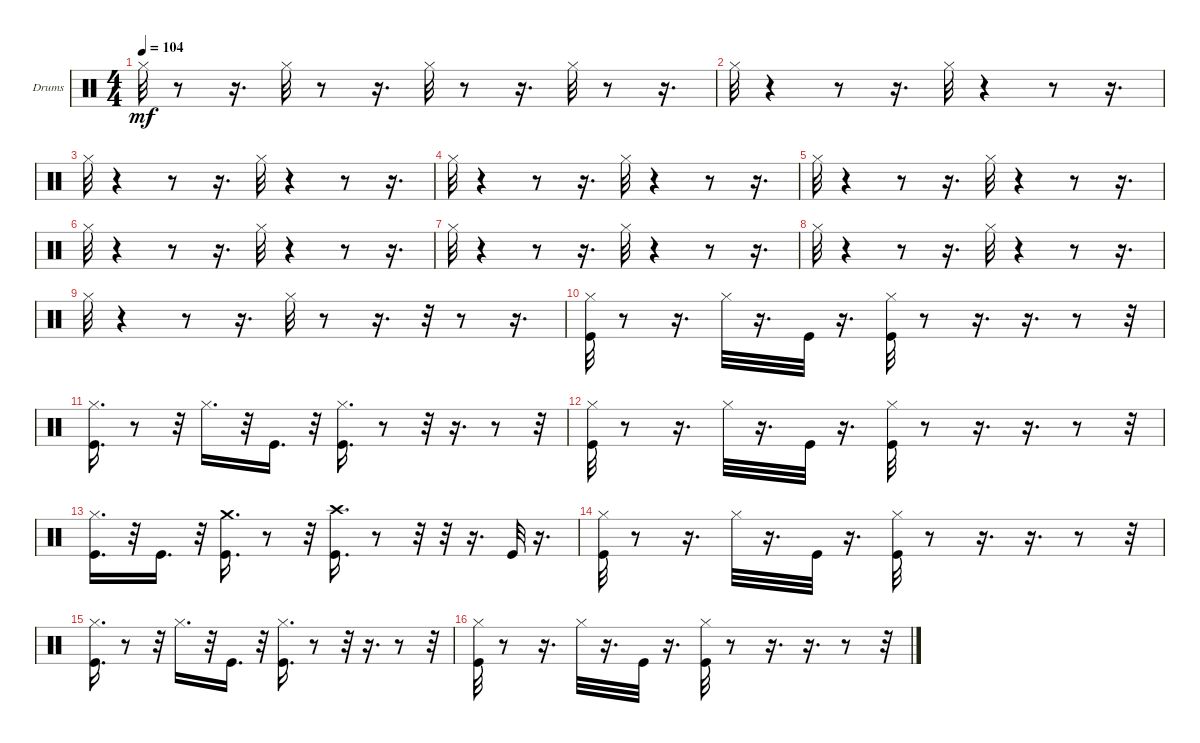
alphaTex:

\bracketExtendMode groupsimilarinstruments
\firstSystemTrackNameOrientation horizontal
\otherSystemsTrackNameOrientation horizontal
\track ("" "Drums") {instrument percussion}
\staff {score}
\articulation defaults
\ts (4 4)
\tempo 104
\clef neutral
\ks c "Hi-Hat (closed)".32{dy mf}
r.8 r.16{d} "Hi-Hat (closed)".32 r.8 r.16{d} "Hi-Hat (closed)".32 r.8 r.16{d} "Hi-Hat (closed)".32 r.8 r.16{d} |
"Hi-Hat (closed)".32 r.4 r.8 r.16{d} "Hi-Hat (closed)".32 r.4 r.8 r.16{d} |
"Hi-Hat (closed)".32 r.4 r.8 r.16{d} "Hi-Hat (closed)".32 r.4 r.8 r.16{d} |
"Hi-Hat (closed)".32 r.4 r.8 r.16{d} "Hi-Hat (closed)".32 r.4 r.8 r.16{d} |
"Hi-Hat (closed)".32 r.4 r.8 r.16{d} "Hi-Hat (closed)".32 r.4 r.8 r.16{d} |
"Hi-Hat (closed)".32 r.4 r.8 r.16{d} "Hi-Hat (closed)".32 r.4 r.8 r.16{d} |
"Hi-Hat (closed)".32 r.4 r.8 r.16{d} "Hi-Hat (closed)".32 r.4 r.8 r.16{d} |
"Hi-Hat (closed)".32 r.4 r.8 r.16{d} "Hi-Hat (closed)".32 r.4 r.8 r.16{d} |
"Hi-Hat (closed)".32 r.4 r.8 r.16{d} "Hi-Hat (closed)".32 r.8 r.16{d} r.32 r.8 r.16{d} |
("Hi-Hat (closed)" "Kick (hit)").32 r.8 r.16{d} "Hi-Hat (closed)".32 r.16{d} "Kick (hit)".32 r.16{d} ("Hi-Hat (closed)" "Kick (hit)").32 r.8 r.16{d} r.16{d} r.8 r.32 |
("Hi-Hat (closed)" "Kick (hit)").16{d} r.8 r.32 "Hi-Hat (closed)".16{d} r.32 "Kick (hit)".16{d} r.32 ("Hi-Hat (closed)" "Kick (hit)").16{d} r.8 r.32 r.16{d} r.8 r.32 |
("Hi-Hat (closed)" "Kick (hit)").32 r.8 r.16{d} "Hi-Hat (closed)".32 r.16{d} "Kick (hit)".32 r.16{d} ("Hi-Hat (closed)" "Kick (hit)").32 r.8 r.16{d} r.16{d} r.8 r.32 |
("Hi-Hat (closed)" "Kick (hit)").16{d} r.32 "Kick (hit)".16{d} r.32 ("Crash medium (hit)" "Kick (hit)").16{d} r.8 r.32 ("Crash high (hit)" "Kick (hit)").16{d} r.8 r.32 r.32 r.16{d} "Kick (hit)".32 r.16{d} |
("Hi-Hat (closed)" "Kick (hit)").32 r.8 r.16{d} "Hi-Hat (closed)".32 r.16{d} "Kick (hit)".32 r.16{d} ("Hi-Hat (closed)" "Kick (hit)").32 r.8 r.16{d} r.16{d} r.8 r.32 |
("Hi-Hat (closed)" "Kick (hit)").16{d} r.8 r.32 "Hi-Hat (closed)".16{d} r.32 "Kick (hit)".16{d} r.32 ("Hi-Hat (closed)" "Kick (hit)").16{d} r.8 r.32 r.16{d} r.8 r.32 |
("Hi-Hat (closed)" "Kick (hit)").32 r.8 r.16{d} "Hi-Hat (closed)".32 r.16{d} "Kick (hit)".32 r.16{d} ("Hi-Hat (closed)" "Kick (hit)").32 r.8 r.16{d} r.16{d} r.8 r.32
